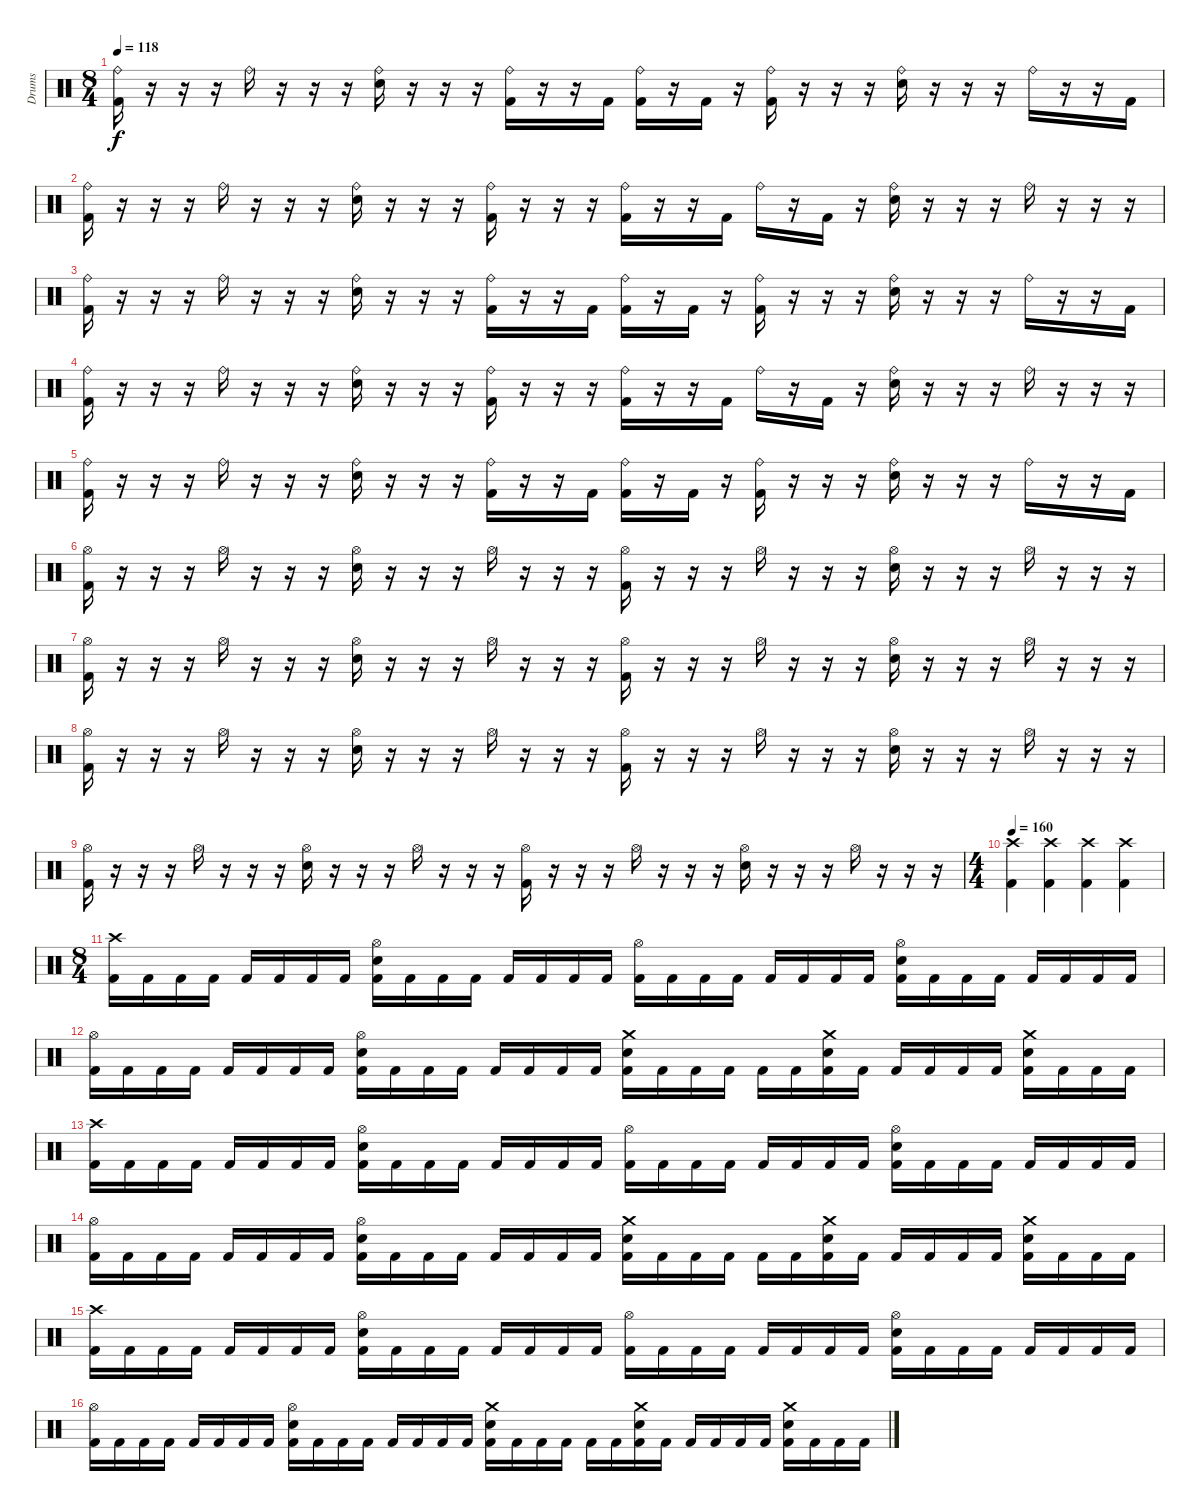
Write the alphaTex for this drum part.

\track ("Drums" "Drums") {instrument percussion}
\staff {score}
\articulation defaults
\ts (8 4)
\tempo 118
\clef neutral
\ks c
("Ride (bell)" "Kick (hit) 2").16{dy f} r.16 r.16 r.16 "Ride (bell)".16 r.16 r.16 r.16 ("Ride (bell)" "Electric Snare (hit)").16 r.16 r.16 r.16 ("Ride (bell)" "Kick (hit) 2").16 r.16 r.16 "Kick (hit) 2".16 ("Ride (bell)" "Kick (hit) 2").16 r.16 "Kick (hit) 2".16 r.16 ("Ride (bell)" "Kick (hit) 2").16 r.16 r.16 r.16 ("Ride (bell)" "Electric Snare (hit)").16 r.16 r.16 r.16 "Ride (bell)".16 r.16 r.16 "Kick (hit) 2".16 |
("Ride (bell)" "Kick (hit) 2").16 r.16 r.16 r.16 "Ride (bell)".16 r.16 r.16 r.16 ("Ride (bell)" "Electric Snare (hit)").16 r.16 r.16 r.16 ("Ride (bell)" "Kick (hit) 2").16 r.16 r.16 r.16 ("Ride (bell)" "Kick (hit) 2").16 r.16 r.16 "Kick (hit) 2".16 "Ride (bell)".16 r.16 "Kick (hit) 2".16 r.16 ("Ride (bell)" "Electric Snare (hit)").16 r.16 r.16 r.16 "Ride (bell)".16 r.16 r.16 r.16 |
("Ride (bell)" "Kick (hit) 2").16 r.16 r.16 r.16 "Ride (bell)".16 r.16 r.16 r.16 ("Ride (bell)" "Electric Snare (hit)").16 r.16 r.16 r.16 ("Ride (bell)" "Kick (hit) 2").16 r.16 r.16 "Kick (hit) 2".16 ("Ride (bell)" "Kick (hit) 2").16 r.16 "Kick (hit) 2".16 r.16 ("Ride (bell)" "Kick (hit) 2").16 r.16 r.16 r.16 ("Ride (bell)" "Electric Snare (hit)").16 r.16 r.16 r.16 "Ride (bell)".16 r.16 r.16 "Kick (hit) 2".16 |
("Ride (bell)" "Kick (hit) 2").16 r.16 r.16 r.16 "Ride (bell)".16 r.16 r.16 r.16 ("Ride (bell)" "Electric Snare (hit)").16 r.16 r.16 r.16 ("Ride (bell)" "Kick (hit) 2").16 r.16 r.16 r.16 ("Ride (bell)" "Kick (hit) 2").16 r.16 r.16 "Kick (hit) 2".16 "Ride (bell)".16 r.16 "Kick (hit) 2".16 r.16 ("Ride (bell)" "Electric Snare (hit)").16 r.16 r.16 r.16 "Ride (bell)".16 r.16 r.16 r.16 |
("Ride (bell)" "Kick (hit) 2").16 r.16 r.16 r.16 "Ride (bell)".16 r.16 r.16 r.16 ("Ride (bell)" "Electric Snare (hit)").16 r.16 r.16 r.16 ("Ride (bell)" "Kick (hit) 2").16 r.16 r.16 "Kick (hit) 2".16 ("Ride (bell)" "Kick (hit) 2").16 r.16 "Kick (hit) 2".16 r.16 ("Ride (bell)" "Kick (hit) 2").16 r.16 r.16 r.16 ("Ride (bell)" "Electric Snare (hit)").16 r.16 r.16 r.16 "Ride (bell)".16 r.16 r.16 "Kick (hit) 2".16 |
("Hi-Hat (open)" "Kick (hit) 2").16 r.16 r.16 r.16 "Hi-Hat (open)".16 r.16 r.16 r.16 ("Hi-Hat (open)" "Electric Snare (hit)").16 r.16 r.16 r.16 "Hi-Hat (open)".16 r.16 r.16 r.16 ("Hi-Hat (open)" "Kick (hit) 2").16 r.16 r.16 r.16 "Hi-Hat (open)".16 r.16 r.16 r.16 ("Hi-Hat (open)" "Electric Snare (hit)").16 r.16 r.16 r.16 "Hi-Hat (open)".16 r.16 r.16 r.16 |
("Hi-Hat (open)" "Kick (hit) 2").16 r.16 r.16 r.16 "Hi-Hat (open)".16 r.16 r.16 r.16 ("Hi-Hat (open)" "Electric Snare (hit)").16 r.16 r.16 r.16 "Hi-Hat (open)".16 r.16 r.16 r.16 ("Hi-Hat (open)" "Kick (hit) 2").16 r.16 r.16 r.16 "Hi-Hat (open)".16 r.16 r.16 r.16 ("Hi-Hat (open)" "Electric Snare (hit)").16 r.16 r.16 r.16 "Hi-Hat (open)".16 r.16 r.16 r.16 |
("Hi-Hat (open)" "Kick (hit) 2").16 r.16 r.16 r.16 "Hi-Hat (open)".16 r.16 r.16 r.16 ("Hi-Hat (open)" "Electric Snare (hit)").16 r.16 r.16 r.16 "Hi-Hat (open)".16 r.16 r.16 r.16 ("Hi-Hat (open)" "Kick (hit) 2").16 r.16 r.16 r.16 "Hi-Hat (open)".16 r.16 r.16 r.16 ("Hi-Hat (open)" "Electric Snare (hit)").16 r.16 r.16 r.16 "Hi-Hat (open)".16 r.16 r.16 r.16 |
("Hi-Hat (open)" "Kick (hit) 2").16 r.16 r.16 r.16 "Hi-Hat (open)".16 r.16 r.16 r.16 ("Hi-Hat (open)" "Electric Snare (hit)").16 r.16 r.16 r.16 "Hi-Hat (open)".16 r.16 r.16 r.16 ("Hi-Hat (open)" "Kick (hit) 2").16 r.16 r.16 r.16 "Hi-Hat (open)".16 r.16 r.16 r.16 ("Hi-Hat (open)" "Electric Snare (hit)").16 r.16 r.16 r.16 "Hi-Hat (open)".16 r.16 r.16 r.16 |
\ts (4 4)
\tempo 160
("Crash high (hit)" "Kick (hit) 2").4 ("Crash high (hit)" "Kick (hit) 2").4 ("Crash high (hit)" "Kick (hit) 2").4 ("Crash high (hit)" "Kick (hit) 2").4 |
\ts (8 4)
("Crash high (hit)" "Kick (hit) 2").16 "Kick (hit) 2".16 "Kick (hit) 2".16 "Kick (hit) 2".16 "Kick (hit) 2".16 "Kick (hit) 2".16 "Kick (hit) 2".16 "Kick (hit) 2".16 ("Hi-Hat (open)" "Electric Snare (hit)" "Kick (hit) 2").16 "Kick (hit) 2".16 "Kick (hit) 2".16 "Kick (hit) 2".16 "Kick (hit) 2".16 "Kick (hit) 2".16 "Kick (hit) 2".16 "Kick (hit) 2".16 ("Hi-Hat (open)" "Kick (hit) 2").16 "Kick (hit) 2".16 "Kick (hit) 2".16 "Kick (hit) 2".16 "Kick (hit) 2".16 "Kick (hit) 2".16 "Kick (hit) 2".16 "Kick (hit) 2".16 ("Hi-Hat (open)" "Electric Snare (hit)" "Kick (hit) 2").16 "Kick (hit) 2".16 "Kick (hit) 2".16 "Kick (hit) 2".16 "Kick (hit) 2".16 "Kick (hit) 2".16 "Kick (hit) 2".16 "Kick (hit) 2".16 |
("Hi-Hat (open)" "Kick (hit) 2").16 "Kick (hit) 2".16 "Kick (hit) 2".16 "Kick (hit) 2".16 "Kick (hit) 2".16 "Kick (hit) 2".16 "Kick (hit) 2".16 "Kick (hit) 2".16 ("Hi-Hat (open)" "Electric Snare (hit)" "Kick (hit) 2").16 "Kick (hit) 2".16 "Kick (hit) 2".16 "Kick (hit) 2".16 "Kick (hit) 2".16 "Kick (hit) 2".16 "Kick (hit) 2".16 "Kick (hit) 2".16 ("Crash medium (hit)" "Electric Snare (hit)" "Kick (hit) 2").16 "Kick (hit) 2".16 "Kick (hit) 2".16 "Kick (hit) 2".16 "Kick (hit) 2".16 "Kick (hit) 2".16 ("Crash medium (hit)" "Electric Snare (hit)" "Kick (hit) 2").16 "Kick (hit) 2".16 "Kick (hit) 2".16 "Kick (hit) 2".16 "Kick (hit) 2".16 "Kick (hit) 2".16 ("Crash medium (hit)" "Electric Snare (hit)" "Kick (hit) 2").16 "Kick (hit) 2".16 "Kick (hit) 2".16 "Kick (hit) 2".16 |
("Crash high (hit)" "Kick (hit) 2").16 "Kick (hit) 2".16 "Kick (hit) 2".16 "Kick (hit) 2".16 "Kick (hit) 2".16 "Kick (hit) 2".16 "Kick (hit) 2".16 "Kick (hit) 2".16 ("Hi-Hat (open)" "Electric Snare (hit)" "Kick (hit) 2").16 "Kick (hit) 2".16 "Kick (hit) 2".16 "Kick (hit) 2".16 "Kick (hit) 2".16 "Kick (hit) 2".16 "Kick (hit) 2".16 "Kick (hit) 2".16 ("Hi-Hat (open)" "Kick (hit) 2").16 "Kick (hit) 2".16 "Kick (hit) 2".16 "Kick (hit) 2".16 "Kick (hit) 2".16 "Kick (hit) 2".16 "Kick (hit) 2".16 "Kick (hit) 2".16 ("Hi-Hat (open)" "Electric Snare (hit)" "Kick (hit) 2").16 "Kick (hit) 2".16 "Kick (hit) 2".16 "Kick (hit) 2".16 "Kick (hit) 2".16 "Kick (hit) 2".16 "Kick (hit) 2".16 "Kick (hit) 2".16 |
("Hi-Hat (open)" "Kick (hit) 2").16 "Kick (hit) 2".16 "Kick (hit) 2".16 "Kick (hit) 2".16 "Kick (hit) 2".16 "Kick (hit) 2".16 "Kick (hit) 2".16 "Kick (hit) 2".16 ("Hi-Hat (open)" "Electric Snare (hit)" "Kick (hit) 2").16 "Kick (hit) 2".16 "Kick (hit) 2".16 "Kick (hit) 2".16 "Kick (hit) 2".16 "Kick (hit) 2".16 "Kick (hit) 2".16 "Kick (hit) 2".16 ("Crash medium (hit)" "Electric Snare (hit)" "Kick (hit) 2").16 "Kick (hit) 2".16 "Kick (hit) 2".16 "Kick (hit) 2".16 "Kick (hit) 2".16 "Kick (hit) 2".16 ("Crash medium (hit)" "Electric Snare (hit)" "Kick (hit) 2").16 "Kick (hit) 2".16 "Kick (hit) 2".16 "Kick (hit) 2".16 "Kick (hit) 2".16 "Kick (hit) 2".16 ("Crash medium (hit)" "Electric Snare (hit)" "Kick (hit) 2").16 "Kick (hit) 2".16 "Kick (hit) 2".16 "Kick (hit) 2".16 |
("Crash high (hit)" "Kick (hit) 2").16 "Kick (hit) 2".16 "Kick (hit) 2".16 "Kick (hit) 2".16 "Kick (hit) 2".16 "Kick (hit) 2".16 "Kick (hit) 2".16 "Kick (hit) 2".16 ("Hi-Hat (open)" "Electric Snare (hit)" "Kick (hit) 2").16 "Kick (hit) 2".16 "Kick (hit) 2".16 "Kick (hit) 2".16 "Kick (hit) 2".16 "Kick (hit) 2".16 "Kick (hit) 2".16 "Kick (hit) 2".16 ("Hi-Hat (open)" "Kick (hit) 2").16 "Kick (hit) 2".16 "Kick (hit) 2".16 "Kick (hit) 2".16 "Kick (hit) 2".16 "Kick (hit) 2".16 "Kick (hit) 2".16 "Kick (hit) 2".16 ("Hi-Hat (open)" "Electric Snare (hit)" "Kick (hit) 2").16 "Kick (hit) 2".16 "Kick (hit) 2".16 "Kick (hit) 2".16 "Kick (hit) 2".16 "Kick (hit) 2".16 "Kick (hit) 2".16 "Kick (hit) 2".16 |
("Hi-Hat (open)" "Kick (hit) 2").16 "Kick (hit) 2".16 "Kick (hit) 2".16 "Kick (hit) 2".16 "Kick (hit) 2".16 "Kick (hit) 2".16 "Kick (hit) 2".16 "Kick (hit) 2".16 ("Hi-Hat (open)" "Electric Snare (hit)" "Kick (hit) 2").16 "Kick (hit) 2".16 "Kick (hit) 2".16 "Kick (hit) 2".16 "Kick (hit) 2".16 "Kick (hit) 2".16 "Kick (hit) 2".16 "Kick (hit) 2".16 ("Crash medium (hit)" "Electric Snare (hit)" "Kick (hit) 2").16 "Kick (hit) 2".16 "Kick (hit) 2".16 "Kick (hit) 2".16 "Kick (hit) 2".16 "Kick (hit) 2".16 ("Crash medium (hit)" "Electric Snare (hit)" "Kick (hit) 2").16 "Kick (hit) 2".16 "Kick (hit) 2".16 "Kick (hit) 2".16 "Kick (hit) 2".16 "Kick (hit) 2".16 ("Crash medium (hit)" "Electric Snare (hit)" "Kick (hit) 2").16 "Kick (hit) 2".16 "Kick (hit) 2".16 "Kick (hit) 2".16
